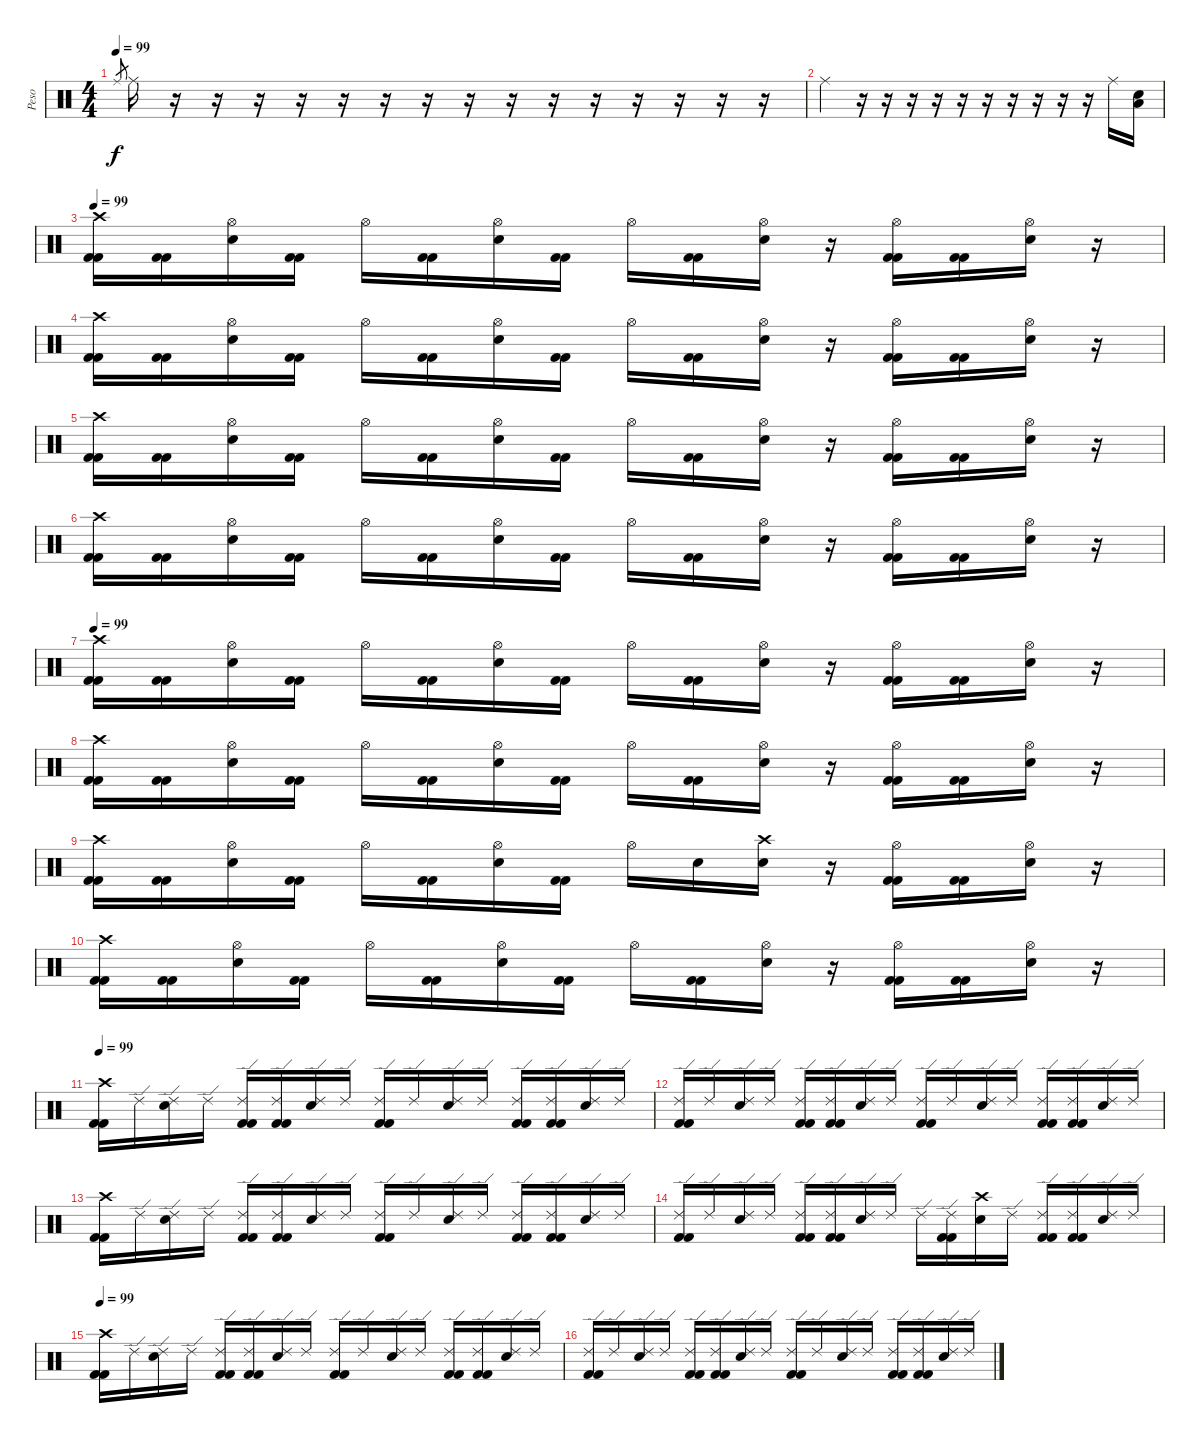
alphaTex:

\track ("Peso" "Peso") {instrument percussion}
\staff {score}
\articulation defaults
\ts (4 4)
\tempo 99
\clef neutral
\ks c "Ride (middle)".8{gr dy f} "Ride (middle)".16
r.16 r.16 r.16 r.16 r.16 r.16 r.16 r.16 r.16 r.16 r.16 r.16 r.16 r.16 r.16 |
"Ride (middle)".4 r.16 r.16 r.16 r.16 r.16 r.16 r.16 r.16 r.16 r.16 "Ride (middle)".16 ("Low Floor Tom (hit)" "Electric Snare (hit)").16{volume 15} |
\tempo 99
("Crash high (hit)" "Kick (hit) 2" "Kick (hit) 2").16 ("Kick (hit) 2" "Kick (hit) 2").16 ("Hi-Hat (open)" "Electric Snare (hit)").16 ("Kick (hit) 2" "Kick (hit) 2").16 "Hi-Hat (open)".16 ("Kick (hit) 2" "Kick (hit) 2").16 ("Hi-Hat (open)" "Electric Snare (hit)").16 ("Kick (hit) 2" "Kick (hit) 2").16 "Hi-Hat (open)".16 ("Kick (hit) 2" "Kick (hit) 2").16 ("Hi-Hat (open)" "Electric Snare (hit)").16 r.16 ("Hi-Hat (open)" "Kick (hit) 2" "Kick (hit) 2").16 ("Kick (hit) 2" "Kick (hit) 2").16 ("Hi-Hat (open)" "Electric Snare (hit)").16 r.16 |
("Crash high (hit)" "Kick (hit) 2" "Kick (hit) 2").16 ("Kick (hit) 2" "Kick (hit) 2").16 ("Hi-Hat (open)" "Electric Snare (hit)").16 ("Kick (hit) 2" "Kick (hit) 2").16 "Hi-Hat (open)".16 ("Kick (hit) 2" "Kick (hit) 2").16 ("Hi-Hat (open)" "Electric Snare (hit)").16 ("Kick (hit) 2" "Kick (hit) 2").16 "Hi-Hat (open)".16 ("Kick (hit) 2" "Kick (hit) 2").16 ("Hi-Hat (open)" "Electric Snare (hit)").16 r.16 ("Hi-Hat (open)" "Kick (hit) 2" "Kick (hit) 2").16 ("Kick (hit) 2" "Kick (hit) 2").16 ("Hi-Hat (open)" "Electric Snare (hit)").16 r.16 |
("Crash high (hit)" "Kick (hit) 2" "Kick (hit) 2").16 ("Kick (hit) 2" "Kick (hit) 2").16 ("Hi-Hat (open)" "Electric Snare (hit)").16 ("Kick (hit) 2" "Kick (hit) 2").16 "Hi-Hat (open)".16 ("Kick (hit) 2" "Kick (hit) 2").16 ("Hi-Hat (open)" "Electric Snare (hit)").16 ("Kick (hit) 2" "Kick (hit) 2").16 "Hi-Hat (open)".16 ("Kick (hit) 2" "Kick (hit) 2").16 ("Hi-Hat (open)" "Electric Snare (hit)").16 r.16 ("Hi-Hat (open)" "Kick (hit) 2" "Kick (hit) 2").16 ("Kick (hit) 2" "Kick (hit) 2").16 ("Hi-Hat (open)" "Electric Snare (hit)").16 r.16 |
("Crash high (hit)" "Kick (hit) 2" "Kick (hit) 2").16 ("Kick (hit) 2" "Kick (hit) 2").16 ("Hi-Hat (open)" "Electric Snare (hit)").16 ("Kick (hit) 2" "Kick (hit) 2").16 "Hi-Hat (open)".16 ("Kick (hit) 2" "Kick (hit) 2").16 ("Hi-Hat (open)" "Electric Snare (hit)").16 ("Kick (hit) 2" "Kick (hit) 2").16 "Hi-Hat (open)".16 ("Kick (hit) 2" "Kick (hit) 2").16 ("Hi-Hat (open)" "Electric Snare (hit)").16 r.16 ("Hi-Hat (open)" "Kick (hit) 2" "Kick (hit) 2").16 ("Kick (hit) 2" "Kick (hit) 2").16 ("Hi-Hat (open)" "Electric Snare (hit)").16 r.16 |
\tempo 99
("Crash high (hit)" "Kick (hit) 2" "Kick (hit) 2").16 ("Kick (hit) 2" "Kick (hit) 2").16 ("Hi-Hat (open)" "Electric Snare (hit)").16 ("Kick (hit) 2" "Kick (hit) 2").16 "Hi-Hat (open)".16 ("Kick (hit) 2" "Kick (hit) 2").16 ("Hi-Hat (open)" "Electric Snare (hit)").16 ("Kick (hit) 2" "Kick (hit) 2").16 "Hi-Hat (open)".16 ("Kick (hit) 2" "Kick (hit) 2").16 ("Hi-Hat (open)" "Electric Snare (hit)").16 r.16 ("Hi-Hat (open)" "Kick (hit) 2" "Kick (hit) 2").16 ("Kick (hit) 2" "Kick (hit) 2").16 ("Hi-Hat (open)" "Electric Snare (hit)").16 r.16 |
("Crash high (hit)" "Kick (hit) 2" "Kick (hit) 2").16 ("Kick (hit) 2" "Kick (hit) 2").16 ("Hi-Hat (open)" "Electric Snare (hit)").16 ("Kick (hit) 2" "Kick (hit) 2").16 "Hi-Hat (open)".16 ("Kick (hit) 2" "Kick (hit) 2").16 ("Hi-Hat (open)" "Electric Snare (hit)").16 ("Kick (hit) 2" "Kick (hit) 2").16 "Hi-Hat (open)".16 ("Kick (hit) 2" "Kick (hit) 2").16 ("Hi-Hat (open)" "Electric Snare (hit)").16 r.16 ("Hi-Hat (open)" "Kick (hit) 2" "Kick (hit) 2").16 ("Kick (hit) 2" "Kick (hit) 2").16 ("Hi-Hat (open)" "Electric Snare (hit)").16 r.16 |
("Crash high (hit)" "Kick (hit) 2" "Kick (hit) 2").16 ("Kick (hit) 2" "Kick (hit) 2").16 ("Hi-Hat (open)" "Electric Snare (hit)").16 ("Kick (hit) 2" "Kick (hit) 2").16 "Hi-Hat (open)".16 ("Kick (hit) 2" "Kick (hit) 2").16 ("Hi-Hat (open)" "Electric Snare (hit)").16 ("Kick (hit) 2" "Kick (hit) 2").16 "Hi-Hat (open)".16 "Electric Snare (hit)".16 ("Crash high (hit)" "Electric Snare (hit)").16 r.16 ("Hi-Hat (open)" "Kick (hit) 2" "Kick (hit) 2").16 ("Kick (hit) 2" "Kick (hit) 2").16 ("Hi-Hat (open)" "Electric Snare (hit)").16 r.16 |
("Crash high (hit)" "Kick (hit) 2" "Kick (hit) 2").16 ("Kick (hit) 2" "Kick (hit) 2").16 ("Hi-Hat (open)" "Electric Snare (hit)").16 ("Kick (hit) 2" "Kick (hit) 2").16 "Hi-Hat (open)".16 ("Kick (hit) 2" "Kick (hit) 2").16 ("Hi-Hat (open)" "Electric Snare (hit)").16 ("Kick (hit) 2" "Kick (hit) 2").16 "Hi-Hat (open)".16 ("Kick (hit) 2" "Kick (hit) 2").16 ("Hi-Hat (open)" "Electric Snare (hit)").16 r.16 ("Hi-Hat (open)" "Kick (hit) 2" "Kick (hit) 2").16 ("Kick (hit) 2" "Kick (hit) 2").16 ("Hi-Hat (open)" "Electric Snare (hit)").16 r.16 |
\tempo 99
("Crash high (hit)" "Kick (hit) 2" "Kick (hit) 2").16 "Ride (edge) 2".16 ("Ride (edge) 2" "Electric Snare (hit)").16 "Ride (edge) 2".16 ("Ride (edge) 2" "Kick (hit) 2" "Kick (hit) 2").16 ("Ride (edge) 2" "Kick (hit) 2" "Kick (hit) 2").16 ("Ride (edge) 2" "Electric Snare (hit)").16 "Ride (edge) 2".16 ("Ride (edge) 2" "Kick (hit) 2" "Kick (hit) 2").16 "Ride (edge) 2".16 ("Ride (edge) 2" "Electric Snare (hit)").16 "Ride (edge) 2".16 ("Ride (edge) 2" "Kick (hit) 2" "Kick (hit) 2").16 ("Ride (edge) 2" "Kick (hit) 2" "Kick (hit) 2").16 ("Ride (edge) 2" "Electric Snare (hit)").16 "Ride (edge) 2".16 |
("Ride (edge) 2" "Kick (hit) 2" "Kick (hit) 2").16 "Ride (edge) 2".16 ("Ride (edge) 2" "Electric Snare (hit)").16 "Ride (edge) 2".16 ("Ride (edge) 2" "Kick (hit) 2" "Kick (hit) 2").16 ("Ride (edge) 2" "Kick (hit) 2" "Kick (hit) 2").16 ("Ride (edge) 2" "Electric Snare (hit)").16 "Ride (edge) 2".16 ("Ride (edge) 2" "Kick (hit) 2" "Kick (hit) 2").16 "Ride (edge) 2".16 ("Ride (edge) 2" "Electric Snare (hit)").16 "Ride (edge) 2".16 ("Ride (edge) 2" "Kick (hit) 2" "Kick (hit) 2").16 ("Ride (edge) 2" "Kick (hit) 2" "Kick (hit) 2").16 ("Ride (edge) 2" "Electric Snare (hit)").16 "Ride (edge) 2".16 |
("Crash high (hit)" "Kick (hit) 2" "Kick (hit) 2").16 "Ride (edge) 2".16 ("Ride (edge) 2" "Electric Snare (hit)").16 "Ride (edge) 2".16 ("Ride (edge) 2" "Kick (hit) 2" "Kick (hit) 2").16 ("Ride (edge) 2" "Kick (hit) 2" "Kick (hit) 2").16 ("Ride (edge) 2" "Electric Snare (hit)").16 "Ride (edge) 2".16 ("Ride (edge) 2" "Kick (hit) 2" "Kick (hit) 2").16 "Ride (edge) 2".16 ("Ride (edge) 2" "Electric Snare (hit)").16 "Ride (edge) 2".16 ("Ride (edge) 2" "Kick (hit) 2" "Kick (hit) 2").16 ("Ride (edge) 2" "Kick (hit) 2" "Kick (hit) 2").16 ("Ride (edge) 2" "Electric Snare (hit)").16 "Ride (edge) 2".16 |
("Ride (edge) 2" "Kick (hit) 2" "Kick (hit) 2").16 "Ride (edge) 2".16 ("Ride (edge) 2" "Electric Snare (hit)").16 "Ride (edge) 2".16 ("Ride (edge) 2" "Kick (hit) 2" "Kick (hit) 2").16 ("Ride (edge) 2" "Kick (hit) 2" "Kick (hit) 2").16 ("Ride (edge) 2" "Electric Snare (hit)").16 "Ride (edge) 2".16 "Ride (edge) 2".16 ("Ride (edge) 2" "Kick (hit) 2" "Kick (hit) 2").16 ("Crash high (hit)" "Electric Snare (hit)").16 "Ride (edge) 2".16 ("Ride (edge) 2" "Kick (hit) 2" "Kick (hit) 2").16 ("Ride (edge) 2" "Kick (hit) 2" "Kick (hit) 2").16 ("Ride (edge) 2" "Electric Snare (hit)").16 "Ride (edge) 2".16 |
\tempo 99
("Crash high (hit)" "Kick (hit) 2" "Kick (hit) 2").16 "Ride (edge) 2".16 ("Ride (edge) 2" "Electric Snare (hit)").16 "Ride (edge) 2".16 ("Ride (edge) 2" "Kick (hit) 2" "Kick (hit) 2").16 ("Ride (edge) 2" "Kick (hit) 2" "Kick (hit) 2").16 ("Ride (edge) 2" "Electric Snare (hit)").16 "Ride (edge) 2".16 ("Ride (edge) 2" "Kick (hit) 2" "Kick (hit) 2").16 "Ride (edge) 2".16 ("Ride (edge) 2" "Electric Snare (hit)").16 "Ride (edge) 2".16 ("Ride (edge) 2" "Kick (hit) 2" "Kick (hit) 2").16 ("Ride (edge) 2" "Kick (hit) 2" "Kick (hit) 2").16 ("Ride (edge) 2" "Electric Snare (hit)").16 "Ride (edge) 2".16 |
("Ride (edge) 2" "Kick (hit) 2" "Kick (hit) 2").16 "Ride (edge) 2".16 ("Ride (edge) 2" "Electric Snare (hit)").16 "Ride (edge) 2".16 ("Ride (edge) 2" "Kick (hit) 2" "Kick (hit) 2").16 ("Ride (edge) 2" "Kick (hit) 2" "Kick (hit) 2").16 ("Ride (edge) 2" "Electric Snare (hit)").16 "Ride (edge) 2".16 ("Ride (edge) 2" "Kick (hit) 2" "Kick (hit) 2").16 "Ride (edge) 2".16 ("Ride (edge) 2" "Electric Snare (hit)").16 "Ride (edge) 2".16 ("Ride (edge) 2" "Kick (hit) 2" "Kick (hit) 2").16 ("Ride (edge) 2" "Kick (hit) 2" "Kick (hit) 2").16 ("Ride (edge) 2" "Electric Snare (hit)").16 "Ride (edge) 2".16
